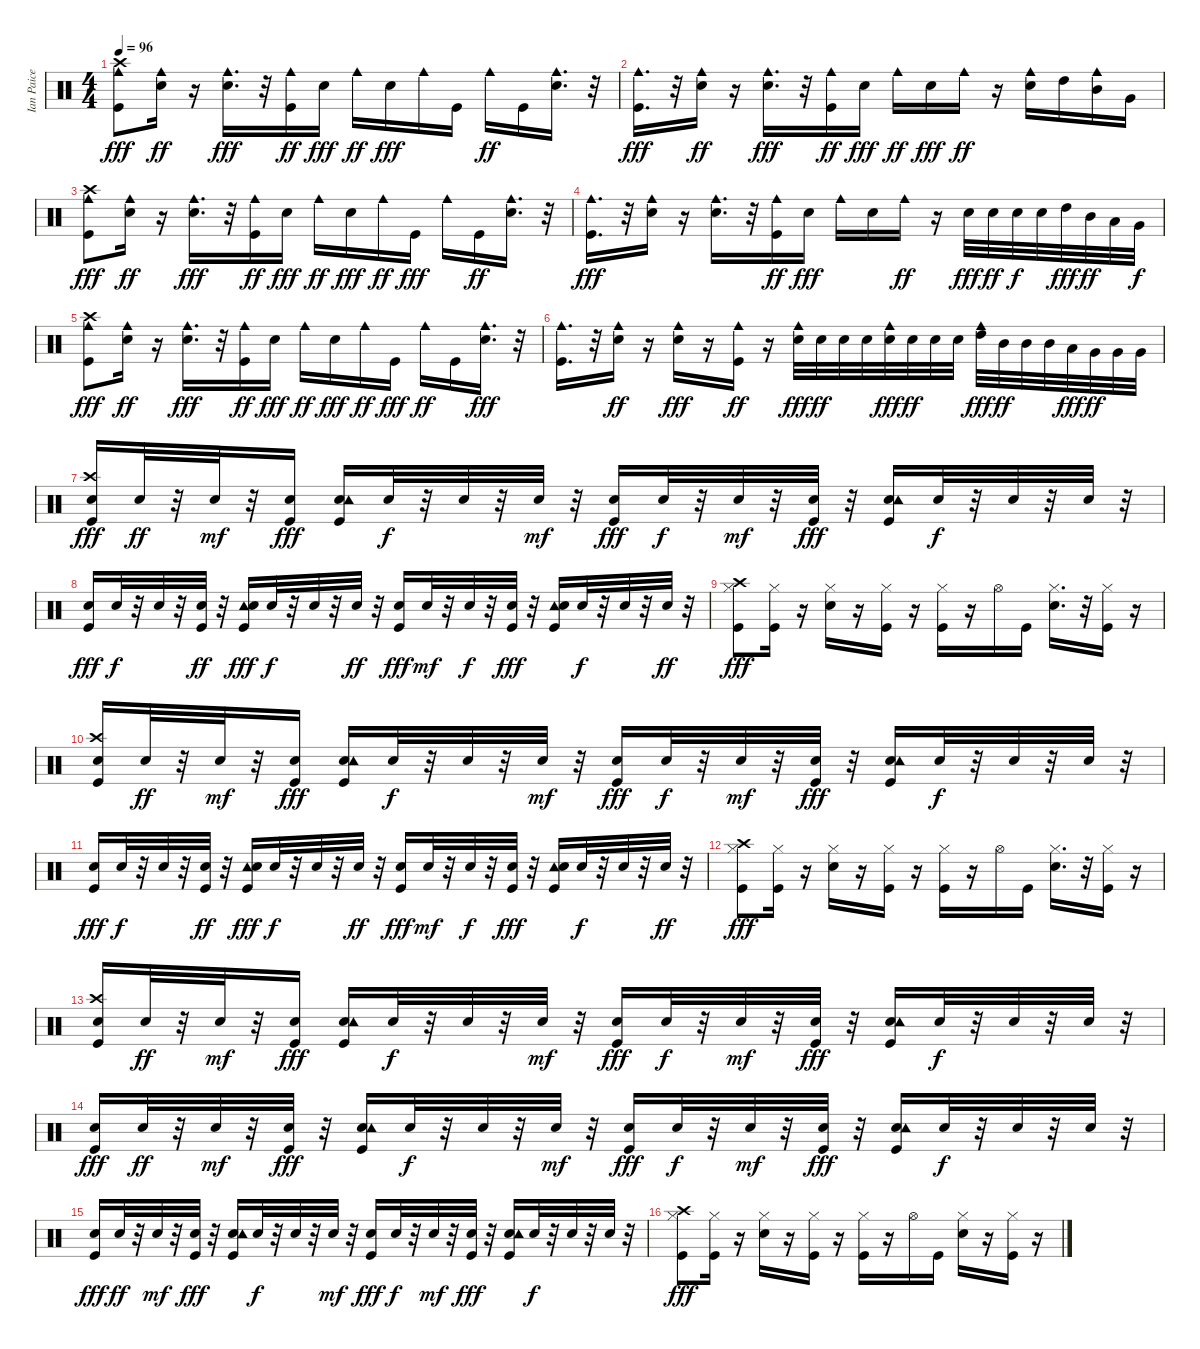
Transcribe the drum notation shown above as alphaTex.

\track ("Ian Paice" "Ian Paice") {instrument percussion}
\staff {score}
\articulation defaults
\ts (4 4)
\tempo 96
\clef neutral
\ks c
("Cowbell medium (hit)" "Kick (hit)" "Crash high (hit)").8{dy fff} ("Snare (hit) 2" "Cowbell medium (hit)").16{dy ff} r.16 ("Cowbell medium (hit)" "Snare (hit) 2").16{d dy fff} r.32 ("Kick (hit)" "Cowbell medium (hit)").16{dy ff} "Snare (hit) 2".16{dy fff} "Cowbell medium (hit)".16{dy ff} "Snare (hit) 2".16{dy fff} "Cowbell medium (hit)".16 "Kick (hit)".16 "Cowbell medium (hit)".16{dy ff} "Kick (hit)".16 ("Snare (hit) 2" "Cowbell medium (hit)").16{d} r.32 |
("Cowbell medium (hit)" "Kick (hit)").16{d dy fff} r.32 ("Snare (hit) 2" "Cowbell medium (hit)").16{dy ff} r.16 ("Cowbell medium (hit)" "Snare (hit) 2").16{d dy fff} r.32 ("Kick (hit)" "Cowbell medium (hit)").16{dy ff} "Snare (hit) 2".16{dy fff} "Cowbell medium (hit)".16{dy ff} "Snare (hit) 2".16{dy fff} "Cowbell medium (hit)".16{dy ff} r.16 ("Cowbell medium (hit)" "Snare (hit) 2").16 "High Tom (hit)".16 ("Cowbell medium (hit)" "Mid Tom (hit)").16 "Very Low Tom (hit)".16 |
("Cowbell medium (hit)" "Kick (hit)" "Crash high (hit)").8{dy fff} ("Snare (hit) 2" "Cowbell medium (hit)").16{dy ff} r.16 ("Cowbell medium (hit)" "Snare (hit) 2").16{d dy fff} r.32 ("Kick (hit)" "Cowbell medium (hit)").16{dy ff} "Snare (hit) 2".16{dy fff} "Cowbell medium (hit)".16{dy ff} "Snare (hit) 2".16{dy fff} "Cowbell medium (hit)".16{dy ff} "Kick (hit)".16{dy fff} "Cowbell medium (hit)".16 "Kick (hit)".16{dy ff} ("Snare (hit) 2" "Cowbell medium (hit)").16{d} r.32 |
("Cowbell medium (hit)" "Kick (hit)").16{d dy fff} r.32 ("Snare (hit) 2" "Cowbell medium (hit)").16 r.16 ("Cowbell medium (hit)" "Snare (hit) 2").16{d} r.32 ("Kick (hit)" "Cowbell medium (hit)").16{dy ff} "Snare (hit) 2".16{dy fff} "Cowbell medium (hit)".16 "Snare (hit) 2".16 "Cowbell medium (hit)".16{dy ff} r.16 "Snare (hit) 2".32{dy fff} "Snare (hit) 2".32{dy ff} "Snare (hit) 2".32{dy f} "Snare (hit) 2".32 "High Tom (hit)".32{dy fff} "Mid Tom (hit)".32{dy ff} "Low Tom (hit)".32 "Very Low Tom (hit)".32{dy f} |
("Cowbell medium (hit)" "Kick (hit)" "Crash high (hit)").8{dy fff} ("Snare (hit) 2" "Cowbell medium (hit)").16{dy ff} r.16 ("Cowbell medium (hit)" "Snare (hit) 2").16{d dy fff} r.32 ("Kick (hit)" "Cowbell medium (hit)").16{dy ff} "Snare (hit) 2".16{dy fff} "Cowbell medium (hit)".16{dy ff} "Snare (hit) 2".16{dy fff} "Cowbell medium (hit)".16{dy ff} "Kick (hit)".16{dy fff} "Cowbell medium (hit)".16{dy ff} "Kick (hit)".16 ("Snare (hit) 2" "Cowbell medium (hit)").16{d dy fff} r.32 |
("Cowbell medium (hit)" "Kick (hit)").16{d} r.32 ("Snare (hit) 2" "Cowbell medium (hit)").16{dy ff} r.16 ("Cowbell medium (hit)" "Snare (hit) 2").16{dy fff} r.16 ("Kick (hit)" "Cowbell medium (hit)").16{dy ff} r.16 ("Cowbell medium (hit)" "Snare (hit) 2").32{dy fff} "Snare (hit) 2".32{dy ff} "Snare (hit) 2".32 "Snare (hit) 2".32 ("Cowbell medium (hit)" "Snare (hit) 2").32{dy fff} "Snare (hit) 2".32{dy ff} "Snare (hit) 2".32 "Snare (hit) 2".32 ("Cowbell medium (hit)" "High Tom (hit)").32{dy fff} "Mid Tom (hit)".32{dy ff} "Mid Tom (hit)".32 "Mid Tom (hit)".32 "Low Tom (hit)".32{dy fff} "Very Low Tom (hit)".32{dy ff} "Very Low Tom (hit)".32 "Very Low Tom (hit)".32 |
("Snare (hit) 2" "Crash high (hit)" "Kick (hit)").16{dy fff} "Snare (hit) 2".32{dy ff} r.32 "Snare (hit) 2".32{dy mf} r.32 ("Kick (hit)" "Snare (hit) 2").16{dy fff} ("Snare (hit) 2" "Kick (hit)" "Tambourine (hit)").16 "Snare (hit) 2".32{dy f} r.32 "Snare (hit) 2".32 r.32 "Snare (hit) 2".32{dy mf} r.32 ("Snare (hit) 2" "Kick (hit)").16{dy fff} "Snare (hit) 2".32{dy f} r.32 "Snare (hit) 2".32{dy mf} r.32 ("Kick (hit)" "Snare (hit) 2").32{dy fff} r.32 ("Snare (hit) 2" "Kick (hit)" "Tambourine (hit)").16 "Snare (hit) 2".32{dy f} r.32 "Snare (hit) 2".32 r.32 "Snare (hit) 2".32 r.32 |
("Snare (hit) 2" "Kick (hit)").16{dy fff} "Snare (hit) 2".32{dy f} r.32 "Snare (hit) 2".32 r.32 ("Kick (hit)" "Snare (hit) 2").32{dy ff} r.32 ("Tambourine (hit)" "Snare (hit) 2" "Kick (hit)").16{dy fff} "Snare (hit) 2".32{dy f} r.32 "Snare (hit) 2".32 r.32 "Snare (hit) 2".32{dy ff} r.32 ("Snare (hit) 2" "Kick (hit)").16{dy fff} "Snare (hit) 2".32{dy mf} r.32 "Snare (hit) 2".32{dy f} r.32 ("Kick (hit)" "Snare (hit) 2").32{dy fff} r.32 ("Tambourine (hit)" "Snare (hit) 2" "Kick (hit)").16 "Snare (hit) 2".32{dy f} r.32 "Snare (hit) 2".32 r.32 "Snare (hit) 2".32{dy ff} r.32 |
("Kick (hit)" "Hi-Hat (closed)" "Crash high (hit)").8{dy fff} ("Hi-Hat (closed)" "Kick (hit)").16 r.16 ("Hi-Hat (closed)" "Snare (hit) 2").16 r.16 ("Hi-Hat (closed)" "Kick (hit)").16 r.16 ("Hi-Hat (closed)" "Kick (hit)").16 r.16 "Hi-Hat (open)".16 "Kick (hit)".16 ("Hi-Hat (closed)" "Snare (hit) 2").16{d} r.32 ("Hi-Hat (closed)" "Kick (hit)").16 r.16 |
("Snare (hit) 2" "Crash high (hit)" "Kick (hit)").16 "Snare (hit) 2".32{dy ff} r.32 "Snare (hit) 2".32{dy mf} r.32 ("Kick (hit)" "Snare (hit) 2").16{dy fff} ("Snare (hit) 2" "Kick (hit)" "Tambourine (hit)").16 "Snare (hit) 2".32{dy f} r.32 "Snare (hit) 2".32 r.32 "Snare (hit) 2".32{dy mf} r.32 ("Snare (hit) 2" "Kick (hit)").16{dy fff} "Snare (hit) 2".32{dy f} r.32 "Snare (hit) 2".32{dy mf} r.32 ("Kick (hit)" "Snare (hit) 2").32{dy fff} r.32 ("Snare (hit) 2" "Kick (hit)" "Tambourine (hit)").16 "Snare (hit) 2".32{dy f} r.32 "Snare (hit) 2".32 r.32 "Snare (hit) 2".32 r.32 |
("Snare (hit) 2" "Kick (hit)").16{dy fff} "Snare (hit) 2".32{dy f} r.32 "Snare (hit) 2".32 r.32 ("Kick (hit)" "Snare (hit) 2").32{dy ff} r.32 ("Tambourine (hit)" "Snare (hit) 2" "Kick (hit)").16{dy fff} "Snare (hit) 2".32{dy f} r.32 "Snare (hit) 2".32 r.32 "Snare (hit) 2".32{dy ff} r.32 ("Snare (hit) 2" "Kick (hit)").16{dy fff} "Snare (hit) 2".32{dy mf} r.32 "Snare (hit) 2".32{dy f} r.32 ("Kick (hit)" "Snare (hit) 2").32{dy fff} r.32 ("Tambourine (hit)" "Snare (hit) 2" "Kick (hit)").16 "Snare (hit) 2".32{dy f} r.32 "Snare (hit) 2".32 r.32 "Snare (hit) 2".32{dy ff} r.32 |
("Kick (hit)" "Hi-Hat (closed)" "Crash high (hit)").8{dy fff} ("Hi-Hat (closed)" "Kick (hit)").16 r.16 ("Hi-Hat (closed)" "Snare (hit) 2").16 r.16 ("Hi-Hat (closed)" "Kick (hit)").16 r.16 ("Hi-Hat (closed)" "Kick (hit)").16 r.16 "Hi-Hat (open)".16 "Kick (hit)".16 ("Hi-Hat (closed)" "Snare (hit) 2").16{d} r.32 ("Hi-Hat (closed)" "Kick (hit)").16 r.16 |
("Snare (hit) 2" "Crash high (hit)" "Kick (hit)").16 "Snare (hit) 2".32{dy ff} r.32 "Snare (hit) 2".32{dy mf} r.32 ("Kick (hit)" "Snare (hit) 2").16{dy fff} ("Snare (hit) 2" "Kick (hit)" "Tambourine (hit)").16 "Snare (hit) 2".32{dy f} r.32 "Snare (hit) 2".32 r.32 "Snare (hit) 2".32{dy mf} r.32 ("Snare (hit) 2" "Kick (hit)").16{dy fff} "Snare (hit) 2".32{dy f} r.32 "Snare (hit) 2".32{dy mf} r.32 ("Kick (hit)" "Snare (hit) 2").32{dy fff} r.32 ("Snare (hit) 2" "Kick (hit)" "Tambourine (hit)").16 "Snare (hit) 2".32{dy f} r.32 "Snare (hit) 2".32 r.32 "Snare (hit) 2".32 r.32 |
("Snare (hit) 2" "Kick (hit)").16{dy fff} "Snare (hit) 2".32{dy ff} r.32 "Snare (hit) 2".32{dy mf} r.32 ("Kick (hit)" "Snare (hit) 2").32{dy fff} r.32 ("Snare (hit) 2" "Kick (hit)" "Tambourine (hit)").16 "Snare (hit) 2".32{dy f} r.32 "Snare (hit) 2".32 r.32 "Snare (hit) 2".32{dy mf} r.32 ("Snare (hit) 2" "Kick (hit)").16{dy fff} "Snare (hit) 2".32{dy f} r.32 "Snare (hit) 2".32{dy mf} r.32 ("Kick (hit)" "Snare (hit) 2").32{dy fff} r.32 ("Snare (hit) 2" "Kick (hit)" "Tambourine (hit)").16 "Snare (hit) 2".32{dy f} r.32 "Snare (hit) 2".32 r.32 "Snare (hit) 2".32 r.32 |
("Snare (hit) 2" "Kick (hit)").16{dy fff} "Snare (hit) 2".32{dy ff} r.32 "Snare (hit) 2".32{dy mf} r.32 ("Kick (hit)" "Snare (hit) 2").32{dy fff} r.32 ("Snare (hit) 2" "Kick (hit)" "Tambourine (hit)").16 "Snare (hit) 2".32{dy f} r.32 "Snare (hit) 2".32 r.32 "Snare (hit) 2".32{dy mf} r.32 ("Snare (hit) 2" "Kick (hit)").16{dy fff} "Snare (hit) 2".32{dy f} r.32 "Snare (hit) 2".32{dy mf} r.32 ("Kick (hit)" "Snare (hit) 2").32{dy fff} r.32 ("Snare (hit) 2" "Kick (hit)" "Tambourine (hit)").16 "Snare (hit) 2".32{dy f} r.32 "Snare (hit) 2".32 r.32 "Snare (hit) 2".32 r.32 |
("Kick (hit)" "Hi-Hat (closed)" "Crash high (hit)").8{dy fff} ("Hi-Hat (closed)" "Kick (hit)").16 r.16 ("Hi-Hat (closed)" "Snare (hit) 2").16 r.16 ("Hi-Hat (closed)" "Kick (hit)").16 r.16 ("Hi-Hat (closed)" "Kick (hit)").16 r.16 "Hi-Hat (open)".16 "Kick (hit)".16 ("Hi-Hat (closed)" "Snare (hit) 2").16 r.16 ("Hi-Hat (closed)" "Kick (hit)").16 r.16
